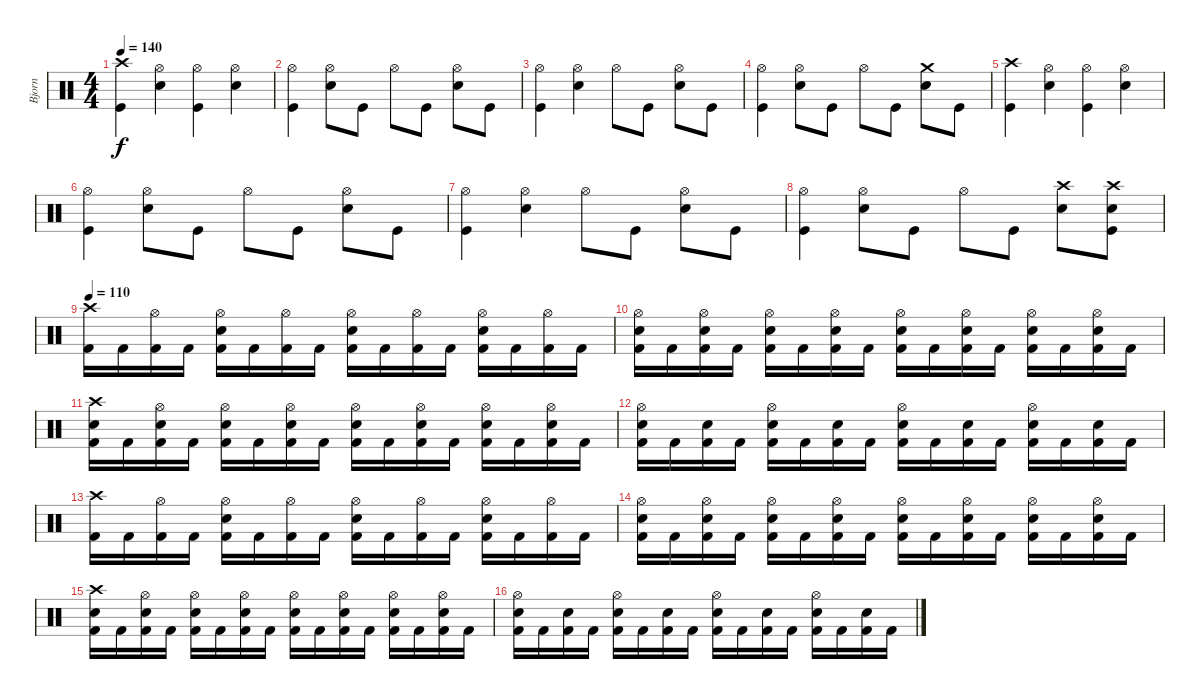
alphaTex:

\track ("Bjorn " "Bjorn ") {instrument percussion}
\staff {score}
\articulation defaults
\ts (4 4)
\tempo 140
\clef neutral
\ks c
("Crash high (hit)" "Kick (hit)").4{dy f} ("Hi-Hat (open)" "Electric Snare (hit)").4 ("Hi-Hat (open)" "Kick (hit)").4 ("Hi-Hat (open)" "Electric Snare (hit)").4 |
("Hi-Hat (open)" "Kick (hit)").4 ("Hi-Hat (open)" "Electric Snare (hit)").8 "Kick (hit)".8 "Hi-Hat (open)".8 "Kick (hit)".8 ("Hi-Hat (open)" "Electric Snare (hit)").8 "Kick (hit)".8 |
("Hi-Hat (open)" "Kick (hit)").4 ("Hi-Hat (open)" "Electric Snare (hit)").4 "Hi-Hat (open)".8 "Kick (hit)".8 ("Hi-Hat (open)" "Electric Snare (hit)").8 "Kick (hit)".8 |
("Hi-Hat (open)" "Kick (hit)").4 ("Hi-Hat (open)" "Electric Snare (hit)").8 "Kick (hit)".8 "Hi-Hat (open)".8 "Kick (hit)".8 ("Crash medium (hit)" "Electric Snare (hit)").8 "Kick (hit)".8 |
("Crash high (hit)" "Kick (hit)").4 ("Hi-Hat (open)" "Electric Snare (hit)").4 ("Hi-Hat (open)" "Kick (hit)").4 ("Hi-Hat (open)" "Electric Snare (hit)").4 |
("Hi-Hat (open)" "Kick (hit)").4 ("Hi-Hat (open)" "Electric Snare (hit)").8 "Kick (hit)".8 "Hi-Hat (open)".8 "Kick (hit)".8 ("Hi-Hat (open)" "Electric Snare (hit)").8 "Kick (hit)".8 |
("Hi-Hat (open)" "Kick (hit)").4 ("Hi-Hat (open)" "Electric Snare (hit)").4 "Hi-Hat (open)".8 "Kick (hit)".8 ("Hi-Hat (open)" "Electric Snare (hit)").8 "Kick (hit)".8 |
("Hi-Hat (open)" "Kick (hit)").4 ("Hi-Hat (open)" "Electric Snare (hit)").8 "Kick (hit)".8 "Hi-Hat (open)".8 "Kick (hit)".8 ("Crash high (hit)" "Electric Snare (hit)").8 ("Crash high (hit)" "Electric Snare (hit)" "Kick (hit)").8 |
\tempo 110
("Crash high (hit)" "Kick (hit) 2").16 "Kick (hit) 2".16 ("Hi-Hat (open)" "Kick (hit) 2").16 "Kick (hit) 2".16 ("Hi-Hat (open)" "Electric Snare (hit)" "Kick (hit) 2").16 "Kick (hit) 2".16 ("Hi-Hat (open)" "Kick (hit) 2").16 "Kick (hit) 2".16 ("Hi-Hat (open)" "Electric Snare (hit)" "Kick (hit) 2").16 "Kick (hit) 2".16 ("Hi-Hat (open)" "Kick (hit) 2").16 "Kick (hit) 2".16 ("Hi-Hat (open)" "Electric Snare (hit)" "Kick (hit) 2").16 "Kick (hit) 2".16 ("Hi-Hat (open)" "Kick (hit) 2").16 "Kick (hit) 2".16 |
("Hi-Hat (open)" "Electric Snare (hit)" "Kick (hit) 2").16 "Kick (hit) 2".16 ("Hi-Hat (open)" "Electric Snare (hit)" "Kick (hit) 2").16 "Kick (hit) 2".16 ("Hi-Hat (open)" "Electric Snare (hit)" "Kick (hit) 2").16 "Kick (hit) 2".16 ("Hi-Hat (open)" "Electric Snare (hit)" "Kick (hit) 2").16 "Kick (hit) 2".16 ("Hi-Hat (open)" "Electric Snare (hit)" "Kick (hit) 2").16 "Kick (hit) 2".16 ("Hi-Hat (open)" "Electric Snare (hit)" "Kick (hit) 2").16 "Kick (hit) 2".16 ("Hi-Hat (open)" "Electric Snare (hit)" "Kick (hit) 2").16 "Kick (hit) 2".16 ("Hi-Hat (open)" "Electric Snare (hit)" "Kick (hit) 2").16 "Kick (hit) 2".16 |
("Crash high (hit)" "Electric Snare (hit)" "Kick (hit) 2").16 "Kick (hit) 2".16 ("Hi-Hat (open)" "Electric Snare (hit)" "Kick (hit) 2").16 "Kick (hit) 2".16 ("Hi-Hat (open)" "Electric Snare (hit)" "Kick (hit) 2").16 "Kick (hit) 2".16 ("Hi-Hat (open)" "Electric Snare (hit)" "Kick (hit) 2").16 "Kick (hit) 2".16 ("Hi-Hat (open)" "Electric Snare (hit)" "Kick (hit) 2").16 "Kick (hit) 2".16 ("Hi-Hat (open)" "Electric Snare (hit)" "Kick (hit) 2").16 "Kick (hit) 2".16 ("Hi-Hat (open)" "Electric Snare (hit)" "Kick (hit) 2").16 "Kick (hit) 2".16 ("Hi-Hat (open)" "Electric Snare (hit)" "Kick (hit) 2").16 "Kick (hit) 2".16 |
("Hi-Hat (open)" "Electric Snare (hit)" "Kick (hit) 2").16 "Kick (hit) 2".16 ("Electric Snare (hit)" "Kick (hit) 2").16 "Kick (hit) 2".16 ("Hi-Hat (open)" "Electric Snare (hit)" "Kick (hit) 2").16 "Kick (hit) 2".16 ("Electric Snare (hit)" "Kick (hit) 2").16 "Kick (hit) 2".16 ("Hi-Hat (open)" "Electric Snare (hit)" "Kick (hit) 2").16 "Kick (hit) 2".16 ("Electric Snare (hit)" "Kick (hit) 2").16 "Kick (hit) 2".16 ("Hi-Hat (open)" "Electric Snare (hit)" "Kick (hit) 2").16 "Kick (hit) 2".16 ("Electric Snare (hit)" "Kick (hit) 2").16 "Kick (hit) 2".16 |
("Crash high (hit)" "Kick (hit) 2").16 "Kick (hit) 2".16 ("Hi-Hat (open)" "Kick (hit) 2").16 "Kick (hit) 2".16 ("Hi-Hat (open)" "Electric Snare (hit)" "Kick (hit) 2").16 "Kick (hit) 2".16 ("Hi-Hat (open)" "Kick (hit) 2").16 "Kick (hit) 2".16 ("Hi-Hat (open)" "Electric Snare (hit)" "Kick (hit) 2").16 "Kick (hit) 2".16 ("Hi-Hat (open)" "Kick (hit) 2").16 "Kick (hit) 2".16 ("Hi-Hat (open)" "Electric Snare (hit)" "Kick (hit) 2").16 "Kick (hit) 2".16 ("Hi-Hat (open)" "Kick (hit) 2").16 "Kick (hit) 2".16 |
("Hi-Hat (open)" "Electric Snare (hit)" "Kick (hit) 2").16 "Kick (hit) 2".16 ("Hi-Hat (open)" "Electric Snare (hit)" "Kick (hit) 2").16 "Kick (hit) 2".16 ("Hi-Hat (open)" "Electric Snare (hit)" "Kick (hit) 2").16 "Kick (hit) 2".16 ("Hi-Hat (open)" "Electric Snare (hit)" "Kick (hit) 2").16 "Kick (hit) 2".16 ("Hi-Hat (open)" "Electric Snare (hit)" "Kick (hit) 2").16 "Kick (hit) 2".16 ("Hi-Hat (open)" "Electric Snare (hit)" "Kick (hit) 2").16 "Kick (hit) 2".16 ("Hi-Hat (open)" "Electric Snare (hit)" "Kick (hit) 2").16 "Kick (hit) 2".16 ("Hi-Hat (open)" "Electric Snare (hit)" "Kick (hit) 2").16 "Kick (hit) 2".16 |
("Crash high (hit)" "Electric Snare (hit)" "Kick (hit) 2").16 "Kick (hit) 2".16 ("Hi-Hat (open)" "Electric Snare (hit)" "Kick (hit) 2").16 "Kick (hit) 2".16 ("Hi-Hat (open)" "Electric Snare (hit)" "Kick (hit) 2").16 "Kick (hit) 2".16 ("Hi-Hat (open)" "Electric Snare (hit)" "Kick (hit) 2").16 "Kick (hit) 2".16 ("Hi-Hat (open)" "Electric Snare (hit)" "Kick (hit) 2").16 "Kick (hit) 2".16 ("Hi-Hat (open)" "Electric Snare (hit)" "Kick (hit) 2").16 "Kick (hit) 2".16 ("Hi-Hat (open)" "Electric Snare (hit)" "Kick (hit) 2").16 "Kick (hit) 2".16 ("Hi-Hat (open)" "Electric Snare (hit)" "Kick (hit) 2").16 "Kick (hit) 2".16 |
("Hi-Hat (open)" "Electric Snare (hit)" "Kick (hit) 2").16 "Kick (hit) 2".16 ("Electric Snare (hit)" "Kick (hit) 2").16 "Kick (hit) 2".16 ("Hi-Hat (open)" "Electric Snare (hit)" "Kick (hit) 2").16 "Kick (hit) 2".16 ("Electric Snare (hit)" "Kick (hit) 2").16 "Kick (hit) 2".16 ("Hi-Hat (open)" "Electric Snare (hit)" "Kick (hit) 2").16 "Kick (hit) 2".16 ("Electric Snare (hit)" "Kick (hit) 2").16 "Kick (hit) 2".16 ("Hi-Hat (open)" "Electric Snare (hit)" "Kick (hit) 2").16 "Kick (hit) 2".16 ("Electric Snare (hit)" "Kick (hit) 2").16 "Kick (hit) 2".16
